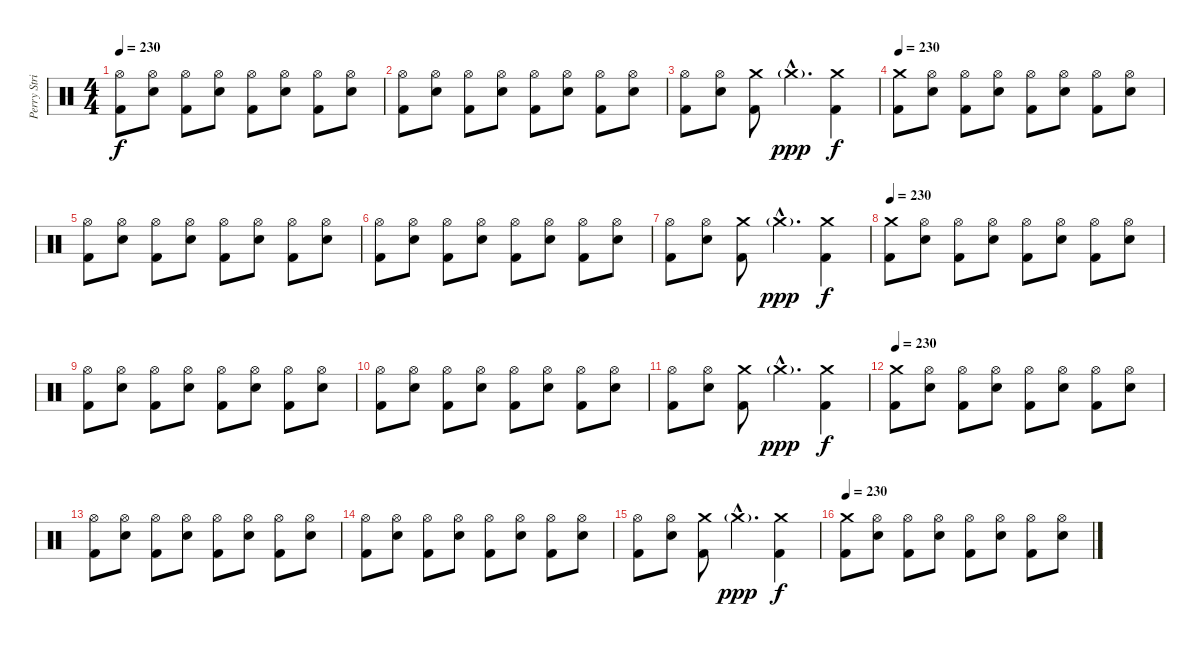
\track ("Perry Strickland" "Perry Stri") {instrument percussion}
\staff {score}
\articulation defaults
\ts (4 4)
\tempo 230
\clef neutral
\ks c
("Hi-Hat (open)" "Kick (hit) 2").8{dy f} ("Hi-Hat (open)" "Electric Snare (hit)").8 ("Hi-Hat (open)" "Kick (hit) 2").8 ("Hi-Hat (open)" "Electric Snare (hit)").8 ("Hi-Hat (open)" "Kick (hit) 2").8 ("Hi-Hat (open)" "Electric Snare (hit)").8 ("Hi-Hat (open)" "Kick (hit) 2").8 ("Hi-Hat (open)" "Electric Snare (hit)").8 |
("Hi-Hat (open)" "Kick (hit) 2").8 ("Hi-Hat (open)" "Electric Snare (hit)").8 ("Hi-Hat (open)" "Kick (hit) 2").8 ("Hi-Hat (open)" "Electric Snare (hit)").8 ("Hi-Hat (open)" "Kick (hit) 2").8 ("Hi-Hat (open)" "Electric Snare (hit)").8 ("Hi-Hat (open)" "Kick (hit) 2").8 ("Hi-Hat (open)" "Electric Snare (hit)").8 |
("Hi-Hat (open)" "Kick (hit) 2").8 ("Hi-Hat (open)" "Electric Snare (hit)").8 ("Crash medium (hit)" "Kick (hit) 2").8 "Crash medium (hit)"{g hac}.4{d dy ppp} ("Crash medium (hit)" "Kick (hit) 2").4{dy f} |
\tempo 230
("Crash medium (hit)" "Kick (hit) 2").8 ("Hi-Hat (open)" "Electric Snare (hit)").8 ("Hi-Hat (open)" "Kick (hit) 2").8 ("Hi-Hat (open)" "Electric Snare (hit)").8 ("Hi-Hat (open)" "Kick (hit) 2").8 ("Hi-Hat (open)" "Electric Snare (hit)").8 ("Hi-Hat (open)" "Kick (hit) 2").8 ("Hi-Hat (open)" "Electric Snare (hit)").8 |
("Hi-Hat (open)" "Kick (hit) 2").8 ("Hi-Hat (open)" "Electric Snare (hit)").8 ("Hi-Hat (open)" "Kick (hit) 2").8 ("Hi-Hat (open)" "Electric Snare (hit)").8 ("Hi-Hat (open)" "Kick (hit) 2").8 ("Hi-Hat (open)" "Electric Snare (hit)").8 ("Hi-Hat (open)" "Kick (hit) 2").8 ("Hi-Hat (open)" "Electric Snare (hit)").8 |
("Hi-Hat (open)" "Kick (hit) 2").8 ("Hi-Hat (open)" "Electric Snare (hit)").8 ("Hi-Hat (open)" "Kick (hit) 2").8 ("Hi-Hat (open)" "Electric Snare (hit)").8 ("Hi-Hat (open)" "Kick (hit) 2").8 ("Hi-Hat (open)" "Electric Snare (hit)").8 ("Hi-Hat (open)" "Kick (hit) 2").8 ("Hi-Hat (open)" "Electric Snare (hit)").8 |
("Hi-Hat (open)" "Kick (hit) 2").8 ("Hi-Hat (open)" "Electric Snare (hit)").8 ("Crash medium (hit)" "Kick (hit) 2").8 "Crash medium (hit)"{g hac}.4{d dy ppp} ("Crash medium (hit)" "Kick (hit) 2").4{dy f} |
\tempo 230
("Crash medium (hit)" "Kick (hit) 2").8 ("Hi-Hat (open)" "Electric Snare (hit)").8 ("Hi-Hat (open)" "Kick (hit) 2").8 ("Hi-Hat (open)" "Electric Snare (hit)").8 ("Hi-Hat (open)" "Kick (hit) 2").8 ("Hi-Hat (open)" "Electric Snare (hit)").8 ("Hi-Hat (open)" "Kick (hit) 2").8 ("Hi-Hat (open)" "Electric Snare (hit)").8 |
("Hi-Hat (open)" "Kick (hit) 2").8 ("Hi-Hat (open)" "Electric Snare (hit)").8 ("Hi-Hat (open)" "Kick (hit) 2").8 ("Hi-Hat (open)" "Electric Snare (hit)").8 ("Hi-Hat (open)" "Kick (hit) 2").8 ("Hi-Hat (open)" "Electric Snare (hit)").8 ("Hi-Hat (open)" "Kick (hit) 2").8 ("Hi-Hat (open)" "Electric Snare (hit)").8 |
("Hi-Hat (open)" "Kick (hit) 2").8 ("Hi-Hat (open)" "Electric Snare (hit)").8 ("Hi-Hat (open)" "Kick (hit) 2").8 ("Hi-Hat (open)" "Electric Snare (hit)").8 ("Hi-Hat (open)" "Kick (hit) 2").8 ("Hi-Hat (open)" "Electric Snare (hit)").8 ("Hi-Hat (open)" "Kick (hit) 2").8 ("Hi-Hat (open)" "Electric Snare (hit)").8 |
("Hi-Hat (open)" "Kick (hit) 2").8 ("Hi-Hat (open)" "Electric Snare (hit)").8 ("Crash medium (hit)" "Kick (hit) 2").8 "Crash medium (hit)"{g hac}.4{d dy ppp} ("Crash medium (hit)" "Kick (hit) 2").4{dy f} |
\tempo 230
("Crash medium (hit)" "Kick (hit) 2").8 ("Hi-Hat (open)" "Electric Snare (hit)").8 ("Hi-Hat (open)" "Kick (hit) 2").8 ("Hi-Hat (open)" "Electric Snare (hit)").8 ("Hi-Hat (open)" "Kick (hit) 2").8 ("Hi-Hat (open)" "Electric Snare (hit)").8 ("Hi-Hat (open)" "Kick (hit) 2").8 ("Hi-Hat (open)" "Electric Snare (hit)").8 |
("Hi-Hat (open)" "Kick (hit) 2").8 ("Hi-Hat (open)" "Electric Snare (hit)").8 ("Hi-Hat (open)" "Kick (hit) 2").8 ("Hi-Hat (open)" "Electric Snare (hit)").8 ("Hi-Hat (open)" "Kick (hit) 2").8 ("Hi-Hat (open)" "Electric Snare (hit)").8 ("Hi-Hat (open)" "Kick (hit) 2").8 ("Hi-Hat (open)" "Electric Snare (hit)").8 |
("Hi-Hat (open)" "Kick (hit) 2").8 ("Hi-Hat (open)" "Electric Snare (hit)").8 ("Hi-Hat (open)" "Kick (hit) 2").8 ("Hi-Hat (open)" "Electric Snare (hit)").8 ("Hi-Hat (open)" "Kick (hit) 2").8 ("Hi-Hat (open)" "Electric Snare (hit)").8 ("Hi-Hat (open)" "Kick (hit) 2").8 ("Hi-Hat (open)" "Electric Snare (hit)").8 |
("Hi-Hat (open)" "Kick (hit) 2").8 ("Hi-Hat (open)" "Electric Snare (hit)").8 ("Crash medium (hit)" "Kick (hit) 2").8 "Crash medium (hit)"{g hac}.4{d dy ppp} ("Crash medium (hit)" "Kick (hit) 2").4{dy f} |
\tempo 230
("Crash medium (hit)" "Kick (hit) 2").8 ("Hi-Hat (open)" "Electric Snare (hit)").8 ("Hi-Hat (open)" "Kick (hit) 2").8 ("Hi-Hat (open)" "Electric Snare (hit)").8 ("Hi-Hat (open)" "Kick (hit) 2").8 ("Hi-Hat (open)" "Electric Snare (hit)").8 ("Hi-Hat (open)" "Kick (hit) 2").8 ("Hi-Hat (open)" "Electric Snare (hit)").8
